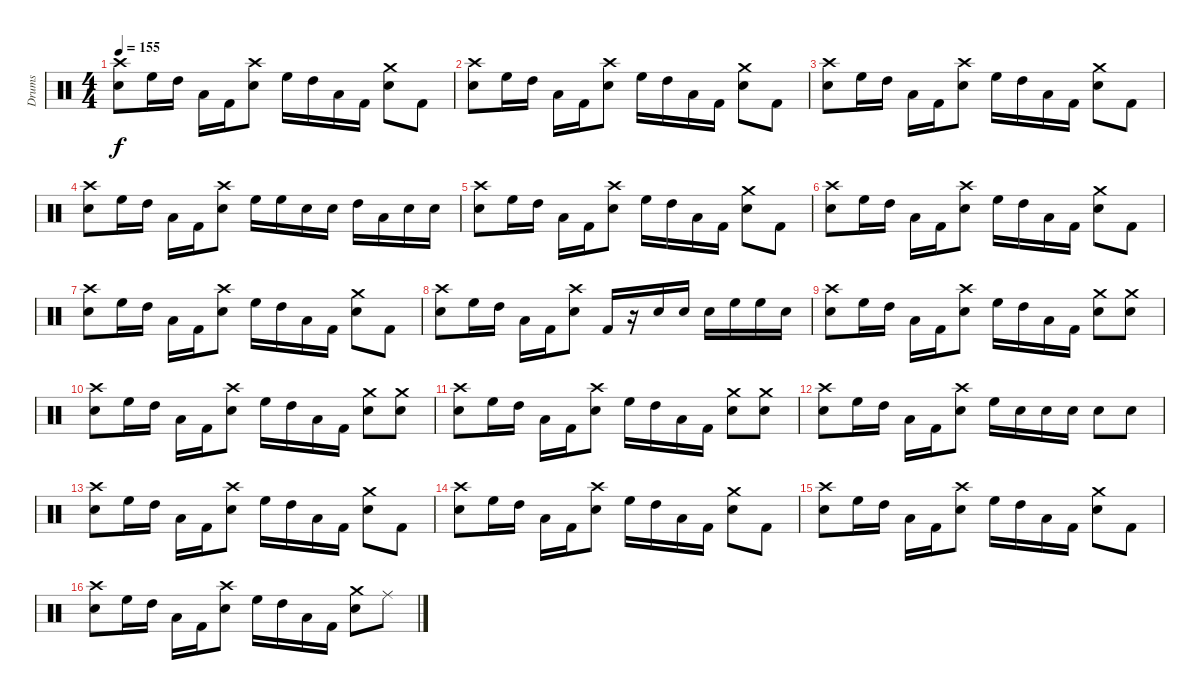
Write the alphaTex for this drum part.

\track ("Drums" "Drums") {instrument percussion}
\staff {score}
\articulation defaults
\ts (4 4)
\tempo 155
\clef neutral
\ks c
("Crash high (hit)" "Electric Snare (hit)").8{dy f} "High Floor Tom (hit)".16 "High Tom (hit)".16 "Low Floor Tom (hit)".16 "Kick (hit) 2".16 ("Crash high (hit)" "Electric Snare (hit)").8 "High Floor Tom (hit)".16 "High Tom (hit)".16 "Low Floor Tom (hit)".16 "Kick (hit) 2".16 ("Crash medium (hit)" "Electric Snare (hit)").8 "Kick (hit) 2".8 |
("Crash high (hit)" "Electric Snare (hit)").8 "High Floor Tom (hit)".16 "High Tom (hit)".16 "Low Floor Tom (hit)".16 "Kick (hit) 2".16 ("Crash high (hit)" "Electric Snare (hit)").8 "High Floor Tom (hit)".16 "High Tom (hit)".16 "Low Floor Tom (hit)".16 "Kick (hit) 2".16 ("Crash medium (hit)" "Electric Snare (hit)").8 "Kick (hit) 2".8 |
("Crash high (hit)" "Electric Snare (hit)").8 "High Floor Tom (hit)".16 "High Tom (hit)".16 "Low Floor Tom (hit)".16 "Kick (hit) 2".16 ("Crash high (hit)" "Electric Snare (hit)").8 "High Floor Tom (hit)".16 "High Tom (hit)".16 "Low Floor Tom (hit)".16 "Kick (hit) 2".16 ("Crash medium (hit)" "Electric Snare (hit)").8 "Kick (hit) 2".8 |
("Crash high (hit)" "Electric Snare (hit)").8 "High Floor Tom (hit)".16 "High Tom (hit)".16 "Low Floor Tom (hit)".16 "Kick (hit) 2".16 ("Crash high (hit)" "Electric Snare (hit)").8 "High Floor Tom (hit)".16 "High Floor Tom (hit)".16 "Electric Snare (hit)".16 "Electric Snare (hit)".16 "High Tom (hit)".16 "Low Floor Tom (hit)".16 "Electric Snare (hit)".16 "Electric Snare (hit)".16 |
("Crash high (hit)" "Electric Snare (hit)").8 "High Floor Tom (hit)".16 "High Tom (hit)".16 "Low Floor Tom (hit)".16 "Kick (hit) 2".16 ("Crash high (hit)" "Electric Snare (hit)").8 "High Floor Tom (hit)".16 "High Tom (hit)".16 "Low Floor Tom (hit)".16 "Kick (hit) 2".16 ("Crash medium (hit)" "Electric Snare (hit)").8 "Kick (hit) 2".8 |
("Crash high (hit)" "Electric Snare (hit)").8 "High Floor Tom (hit)".16 "High Tom (hit)".16 "Low Floor Tom (hit)".16 "Kick (hit) 2".16 ("Crash high (hit)" "Electric Snare (hit)").8 "High Floor Tom (hit)".16 "High Tom (hit)".16 "Low Floor Tom (hit)".16 "Kick (hit) 2".16 ("Crash medium (hit)" "Electric Snare (hit)").8 "Kick (hit) 2".8 |
("Crash high (hit)" "Electric Snare (hit)").8 "High Floor Tom (hit)".16 "High Tom (hit)".16 "Low Floor Tom (hit)".16 "Kick (hit) 2".16 ("Crash high (hit)" "Electric Snare (hit)").8 "High Floor Tom (hit)".16 "High Tom (hit)".16 "Low Floor Tom (hit)".16 "Kick (hit) 2".16 ("Crash medium (hit)" "Electric Snare (hit)").8 "Kick (hit) 2".8 |
("Crash high (hit)" "Electric Snare (hit)").8 "High Floor Tom (hit)".16 "High Tom (hit)".16 "Low Floor Tom (hit)".16 "Kick (hit) 2".16 ("Crash high (hit)" "Electric Snare (hit)").8 "Kick (hit) 2".16 r.16 "Electric Snare (hit)".16 "Electric Snare (hit)".16 "Electric Snare (hit)".16 "High Floor Tom (hit)".16 "High Floor Tom (hit)".16 "Electric Snare (hit)".16 |
("Crash high (hit)" "Electric Snare (hit)").8 "High Floor Tom (hit)".16 "High Tom (hit)".16 "Low Floor Tom (hit)".16 "Kick (hit) 2".16 ("Crash high (hit)" "Electric Snare (hit)").8 "High Floor Tom (hit)".16 "High Tom (hit)".16 "Low Floor Tom (hit)".16 "Kick (hit) 2".16 ("Crash medium (hit)" "Electric Snare (hit)").8 ("Crash medium (hit)" "Electric Snare (hit)").8 |
("Crash high (hit)" "Electric Snare (hit)").8 "High Floor Tom (hit)".16 "High Tom (hit)".16 "Low Floor Tom (hit)".16 "Kick (hit) 2".16 ("Crash high (hit)" "Electric Snare (hit)").8 "High Floor Tom (hit)".16 "High Tom (hit)".16 "Low Floor Tom (hit)".16 "Kick (hit) 2".16 ("Crash medium (hit)" "Electric Snare (hit)").8 ("Crash medium (hit)" "Electric Snare (hit)").8 |
("Crash high (hit)" "Electric Snare (hit)").8 "High Floor Tom (hit)".16 "High Tom (hit)".16 "Low Floor Tom (hit)".16 "Kick (hit) 2".16 ("Crash high (hit)" "Electric Snare (hit)").8 "High Floor Tom (hit)".16 "High Tom (hit)".16 "Low Floor Tom (hit)".16 "Kick (hit) 2".16 ("Crash medium (hit)" "Electric Snare (hit)").8 ("Crash medium (hit)" "Electric Snare (hit)").8 |
("Crash high (hit)" "Electric Snare (hit)").8 "High Floor Tom (hit)".16 "High Tom (hit)".16 "Low Floor Tom (hit)".16 "Kick (hit) 2".16 ("Crash high (hit)" "Electric Snare (hit)").8 "High Floor Tom (hit)".16 "Electric Snare (hit)".16 "Electric Snare (hit)".16 "Electric Snare (hit)".16 "Electric Snare (hit)".8 "Electric Snare (hit)".8 |
("Crash high (hit)" "Electric Snare (hit)").8 "High Floor Tom (hit)".16 "High Tom (hit)".16 "Low Floor Tom (hit)".16 "Kick (hit) 2".16 ("Crash high (hit)" "Electric Snare (hit)").8 "High Floor Tom (hit)".16 "High Tom (hit)".16 "Low Floor Tom (hit)".16 "Kick (hit) 2".16 ("Crash medium (hit)" "Electric Snare (hit)").8 "Kick (hit) 2".8 |
("Crash high (hit)" "Electric Snare (hit)").8 "High Floor Tom (hit)".16 "High Tom (hit)".16 "Low Floor Tom (hit)".16 "Kick (hit) 2".16 ("Crash high (hit)" "Electric Snare (hit)").8 "High Floor Tom (hit)".16 "High Tom (hit)".16 "Low Floor Tom (hit)".16 "Kick (hit) 2".16 ("Crash medium (hit)" "Electric Snare (hit)").8 "Kick (hit) 2".8 |
("Crash high (hit)" "Electric Snare (hit)").8 "High Floor Tom (hit)".16 "High Tom (hit)".16 "Low Floor Tom (hit)".16 "Kick (hit) 2".16 ("Crash high (hit)" "Electric Snare (hit)").8 "High Floor Tom (hit)".16 "High Tom (hit)".16 "Low Floor Tom (hit)".16 "Kick (hit) 2".16 ("Crash medium (hit)" "Electric Snare (hit)").8 "Kick (hit) 2".8 |
("Crash high (hit)" "Electric Snare (hit)").8 "High Floor Tom (hit)".16 "High Tom (hit)".16 "Low Floor Tom (hit)".16 "Kick (hit) 2".16 ("Crash high (hit)" "Electric Snare (hit)").8 "High Floor Tom (hit)".16 "High Tom (hit)".16 "Low Floor Tom (hit)".16 "Kick (hit) 2".16 ("Crash medium (hit)" "Electric Snare (hit)").8 "Ride (middle)".8
